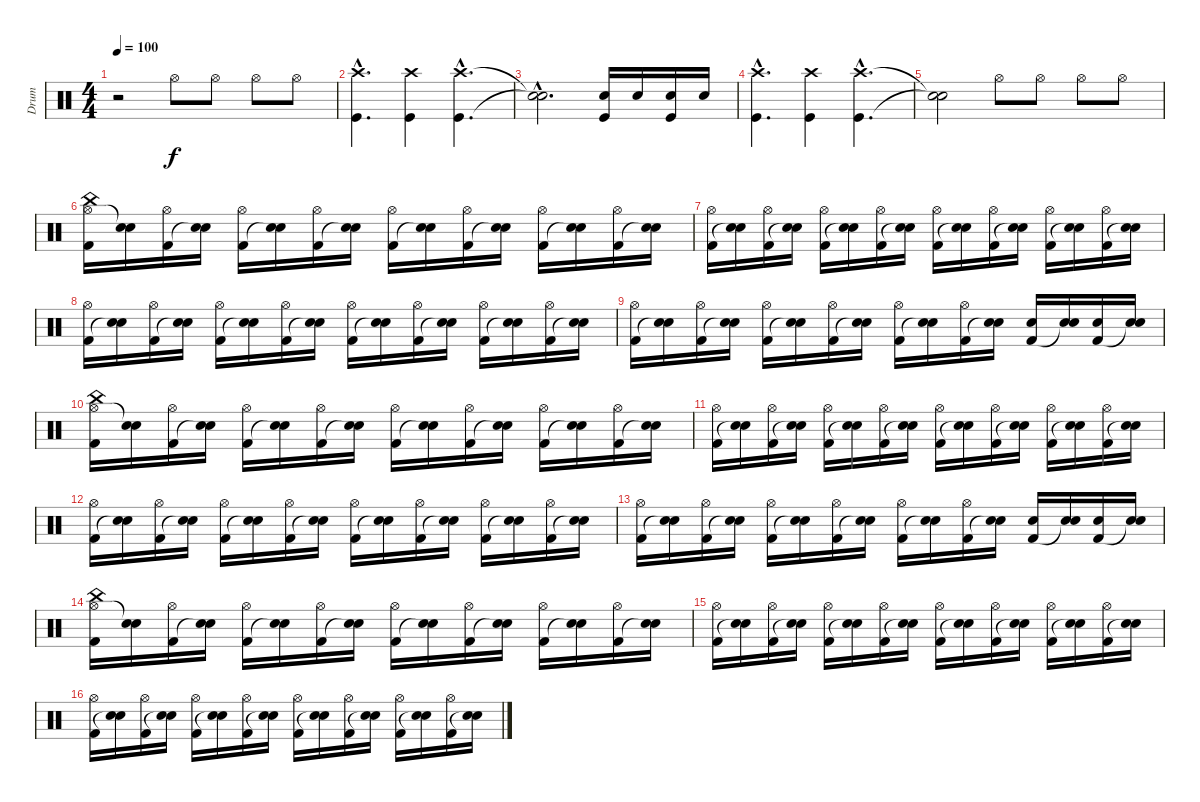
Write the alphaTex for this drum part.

\track ("Drum" "Drum") {instrument percussion}
\staff {score}
\articulation defaults
\ts (4 4)
\tempo 100
\clef neutral
\ks c
r.2{dy f} "Hi-Hat (open)".8 "Hi-Hat (open)".8 "Hi-Hat (open)".8 "Hi-Hat (open)".8 |
("Crash high (hit)"{hac} "Kick (hit)"{hac}).4{d} ("Crash high (hit)" "Kick (hit)").4 ("Crash high (hit)"{hac} "Kick (hit)"{hac}).4{d} |
("Snare (hit)"{hac t} "Snare (hit)"{hac t}).2{d} ("Snare (hit) 2" "Kick (hit)").16 "Snare (hit) 2".16 ("Snare (hit) 2" "Kick (hit)").16 "Snare (hit) 2".16 |
("Crash high (hit)"{hac} "Kick (hit)"{hac}).4{d} ("Crash high (hit)" "Kick (hit)").4 ("Crash high (hit)"{hac} "Kick (hit)"{hac}).4{d} |
("Snare (hit)"{t} "Snare (hit)"{t}).2 "Hi-Hat (open)".8 "Hi-Hat (open)".8 "Hi-Hat (open)".8 "Hi-Hat (open)".8 |
("China (hit)" "Hi-Hat (open)" "Kick (hit) 2").16 ("Electric Snare (hit)" "Snare (hit)"{t}).16 ("Hi-Hat (open)" "Kick (hit) 2").16 ("Electric Snare (hit)" "Snare (hit)"{t}).16 ("Hi-Hat (open)" "Kick (hit) 2").16 ("Electric Snare (hit)" "Snare (hit)"{t}).16 ("Hi-Hat (open)" "Kick (hit) 2").16 ("Electric Snare (hit)" "Snare (hit)"{t}).16 ("Hi-Hat (open)" "Kick (hit) 2").16 ("Electric Snare (hit)" "Snare (hit)"{t}).16 ("Hi-Hat (open)" "Kick (hit) 2").16 ("Electric Snare (hit)" "Snare (hit)"{t}).16 ("Hi-Hat (open)" "Kick (hit) 2").16 ("Electric Snare (hit)" "Snare (hit)"{t}).16 ("Hi-Hat (open)" "Kick (hit) 2").16 ("Electric Snare (hit)" "Snare (hit)"{t}).16 |
("Hi-Hat (open)" "Kick (hit) 2").16 ("Electric Snare (hit)" "Snare (hit)"{t}).16 ("Hi-Hat (open)" "Kick (hit) 2").16 ("Electric Snare (hit)" "Snare (hit)"{t}).16 ("Hi-Hat (open)" "Kick (hit) 2").16 ("Electric Snare (hit)" "Snare (hit)"{t}).16 ("Hi-Hat (open)" "Kick (hit) 2").16 ("Electric Snare (hit)" "Snare (hit)"{t}).16 ("Hi-Hat (open)" "Kick (hit) 2").16 ("Electric Snare (hit)" "Snare (hit)"{t}).16 ("Hi-Hat (open)" "Kick (hit) 2").16 ("Electric Snare (hit)" "Snare (hit)"{t}).16 ("Hi-Hat (open)" "Kick (hit) 2").16 ("Electric Snare (hit)" "Snare (hit)"{t}).16 ("Hi-Hat (open)" "Kick (hit) 2").16 ("Electric Snare (hit)" "Snare (hit)"{t}).16 |
("Hi-Hat (open)" "Kick (hit) 2").16 ("Electric Snare (hit)" "Snare (hit)"{t}).16 ("Hi-Hat (open)" "Kick (hit) 2").16 ("Electric Snare (hit)" "Snare (hit)"{t}).16 ("Hi-Hat (open)" "Kick (hit) 2").16 ("Electric Snare (hit)" "Snare (hit)"{t}).16 ("Hi-Hat (open)" "Kick (hit) 2").16 ("Electric Snare (hit)" "Snare (hit)"{t}).16 ("Hi-Hat (open)" "Kick (hit) 2").16 ("Electric Snare (hit)" "Snare (hit)"{t}).16 ("Hi-Hat (open)" "Kick (hit) 2").16 ("Electric Snare (hit)" "Snare (hit)"{t}).16 ("Hi-Hat (open)" "Kick (hit) 2").16 ("Electric Snare (hit)" "Snare (hit)"{t}).16 ("Hi-Hat (open)" "Kick (hit) 2").16 ("Electric Snare (hit)" "Snare (hit)"{t}).16 |
("Hi-Hat (open)" "Kick (hit) 2").16 ("Electric Snare (hit)" "Snare (hit)"{t}).16 ("Hi-Hat (open)" "Kick (hit) 2").16 ("Electric Snare (hit)" "Snare (hit)"{t}).16 ("Hi-Hat (open)" "Kick (hit) 2").16 ("Electric Snare (hit)" "Snare (hit)"{t}).16 ("Hi-Hat (open)" "Kick (hit) 2").16 ("Electric Snare (hit)" "Snare (hit)"{t}).16 ("Hi-Hat (open)" "Kick (hit) 2").16 ("Electric Snare (hit)" "Snare (hit)"{t}).16 ("Hi-Hat (open)" "Kick (hit) 2").16 ("Electric Snare (hit)" "Snare (hit)"{t}).16 ("Snare (hit) 2" "Kick (hit) 2").16 ("Snare (hit) 2" "Snare (hit)"{t}).16 ("Snare (hit) 2" "Kick (hit) 2").16 ("Snare (hit) 2" "Snare (hit)"{t}).16 |
("China (hit)" "Hi-Hat (open)" "Kick (hit) 2").16 ("Electric Snare (hit)" "Snare (hit)"{t}).16 ("Hi-Hat (open)" "Kick (hit) 2").16 ("Electric Snare (hit)" "Snare (hit)"{t}).16 ("Hi-Hat (open)" "Kick (hit) 2").16 ("Electric Snare (hit)" "Snare (hit)"{t}).16 ("Hi-Hat (open)" "Kick (hit) 2").16 ("Electric Snare (hit)" "Snare (hit)"{t}).16 ("Hi-Hat (open)" "Kick (hit) 2").16 ("Electric Snare (hit)" "Snare (hit)"{t}).16 ("Hi-Hat (open)" "Kick (hit) 2").16 ("Electric Snare (hit)" "Snare (hit)"{t}).16 ("Hi-Hat (open)" "Kick (hit) 2").16 ("Electric Snare (hit)" "Snare (hit)"{t}).16 ("Hi-Hat (open)" "Kick (hit) 2").16 ("Electric Snare (hit)" "Snare (hit)"{t}).16 |
("Hi-Hat (open)" "Kick (hit) 2").16 ("Electric Snare (hit)" "Snare (hit)"{t}).16 ("Hi-Hat (open)" "Kick (hit) 2").16 ("Electric Snare (hit)" "Snare (hit)"{t}).16 ("Hi-Hat (open)" "Kick (hit) 2").16 ("Electric Snare (hit)" "Snare (hit)"{t}).16 ("Hi-Hat (open)" "Kick (hit) 2").16 ("Electric Snare (hit)" "Snare (hit)"{t}).16 ("Hi-Hat (open)" "Kick (hit) 2").16 ("Electric Snare (hit)" "Snare (hit)"{t}).16 ("Hi-Hat (open)" "Kick (hit) 2").16 ("Electric Snare (hit)" "Snare (hit)"{t}).16 ("Hi-Hat (open)" "Kick (hit) 2").16 ("Electric Snare (hit)" "Snare (hit)"{t}).16 ("Hi-Hat (open)" "Kick (hit) 2").16 ("Electric Snare (hit)" "Snare (hit)"{t}).16 |
("Hi-Hat (open)" "Kick (hit) 2").16 ("Electric Snare (hit)" "Snare (hit)"{t}).16 ("Hi-Hat (open)" "Kick (hit) 2").16 ("Electric Snare (hit)" "Snare (hit)"{t}).16 ("Hi-Hat (open)" "Kick (hit) 2").16 ("Electric Snare (hit)" "Snare (hit)"{t}).16 ("Hi-Hat (open)" "Kick (hit) 2").16 ("Electric Snare (hit)" "Snare (hit)"{t}).16 ("Hi-Hat (open)" "Kick (hit) 2").16 ("Electric Snare (hit)" "Snare (hit)"{t}).16 ("Hi-Hat (open)" "Kick (hit) 2").16 ("Electric Snare (hit)" "Snare (hit)"{t}).16 ("Hi-Hat (open)" "Kick (hit) 2").16 ("Electric Snare (hit)" "Snare (hit)"{t}).16 ("Hi-Hat (open)" "Kick (hit) 2").16 ("Electric Snare (hit)" "Snare (hit)"{t}).16 |
("Hi-Hat (open)" "Kick (hit) 2").16 ("Electric Snare (hit)" "Snare (hit)"{t}).16 ("Hi-Hat (open)" "Kick (hit) 2").16 ("Electric Snare (hit)" "Snare (hit)"{t}).16 ("Hi-Hat (open)" "Kick (hit) 2").16 ("Electric Snare (hit)" "Snare (hit)"{t}).16 ("Hi-Hat (open)" "Kick (hit) 2").16 ("Electric Snare (hit)" "Snare (hit)"{t}).16 ("Hi-Hat (open)" "Kick (hit) 2").16 ("Electric Snare (hit)" "Snare (hit)"{t}).16 ("Hi-Hat (open)" "Kick (hit) 2").16 ("Electric Snare (hit)" "Snare (hit)"{t}).16 ("Snare (hit) 2" "Kick (hit) 2").16 ("Snare (hit) 2" "Snare (hit)"{t}).16 ("Snare (hit) 2" "Kick (hit) 2").16 ("Snare (hit) 2" "Snare (hit)"{t}).16 |
("China (hit)" "Hi-Hat (open)" "Kick (hit) 2").16 ("Electric Snare (hit)" "Snare (hit)"{t}).16 ("Hi-Hat (open)" "Kick (hit) 2").16 ("Electric Snare (hit)" "Snare (hit)"{t}).16 ("Hi-Hat (open)" "Kick (hit) 2").16 ("Electric Snare (hit)" "Snare (hit)"{t}).16 ("Hi-Hat (open)" "Kick (hit) 2").16 ("Electric Snare (hit)" "Snare (hit)"{t}).16 ("Hi-Hat (open)" "Kick (hit) 2").16 ("Electric Snare (hit)" "Snare (hit)"{t}).16 ("Hi-Hat (open)" "Kick (hit) 2").16 ("Electric Snare (hit)" "Snare (hit)"{t}).16 ("Hi-Hat (open)" "Kick (hit) 2").16 ("Electric Snare (hit)" "Snare (hit)"{t}).16 ("Hi-Hat (open)" "Kick (hit) 2").16 ("Electric Snare (hit)" "Snare (hit)"{t}).16 |
("Hi-Hat (open)" "Kick (hit) 2").16 ("Electric Snare (hit)" "Snare (hit)"{t}).16 ("Hi-Hat (open)" "Kick (hit) 2").16 ("Electric Snare (hit)" "Snare (hit)"{t}).16 ("Hi-Hat (open)" "Kick (hit) 2").16 ("Electric Snare (hit)" "Snare (hit)"{t}).16 ("Hi-Hat (open)" "Kick (hit) 2").16 ("Electric Snare (hit)" "Snare (hit)"{t}).16 ("Hi-Hat (open)" "Kick (hit) 2").16 ("Electric Snare (hit)" "Snare (hit)"{t}).16 ("Hi-Hat (open)" "Kick (hit) 2").16 ("Electric Snare (hit)" "Snare (hit)"{t}).16 ("Hi-Hat (open)" "Kick (hit) 2").16 ("Electric Snare (hit)" "Snare (hit)"{t}).16 ("Hi-Hat (open)" "Kick (hit) 2").16 ("Electric Snare (hit)" "Snare (hit)"{t}).16 |
("Hi-Hat (open)" "Kick (hit) 2").16 ("Electric Snare (hit)" "Snare (hit)"{t}).16 ("Hi-Hat (open)" "Kick (hit) 2").16 ("Electric Snare (hit)" "Snare (hit)"{t}).16 ("Hi-Hat (open)" "Kick (hit) 2").16 ("Electric Snare (hit)" "Snare (hit)"{t}).16 ("Hi-Hat (open)" "Kick (hit) 2").16 ("Electric Snare (hit)" "Snare (hit)"{t}).16 ("Hi-Hat (open)" "Kick (hit) 2").16 ("Electric Snare (hit)" "Snare (hit)"{t}).16 ("Hi-Hat (open)" "Kick (hit) 2").16 ("Electric Snare (hit)" "Snare (hit)"{t}).16 ("Hi-Hat (open)" "Kick (hit) 2").16 ("Electric Snare (hit)" "Snare (hit)"{t}).16 ("Hi-Hat (open)" "Kick (hit) 2").16 ("Electric Snare (hit)" "Snare (hit)"{t}).16
